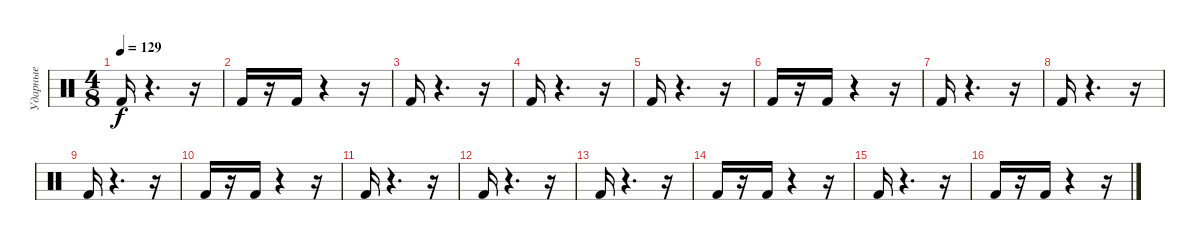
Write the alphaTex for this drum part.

\track ("Ударные" "Ударные") {instrument percussion}
\staff {score}
\articulation defaults
\ts (4 8)
\tempo 129
\clef neutral
\ks c "Kick (hit) 2".16{dy f}
r.4{d} r.16 |
"Kick (hit) 2".16 r.16 "Kick (hit) 2".16 r.4 r.16 |
"Kick (hit) 2".16 r.4{d} r.16 |
"Kick (hit) 2".16 r.4{d} r.16 |
"Kick (hit) 2".16 r.4{d} r.16 |
"Kick (hit) 2".16 r.16 "Kick (hit) 2".16 r.4 r.16 |
"Kick (hit) 2".16 r.4{d} r.16 |
"Kick (hit) 2".16 r.4{d} r.16 |
"Kick (hit) 2".16 r.4{d} r.16 |
"Kick (hit) 2".16 r.16 "Kick (hit) 2".16 r.4 r.16 |
"Kick (hit) 2".16 r.4{d} r.16 |
"Kick (hit) 2".16 r.4{d} r.16 |
"Kick (hit) 2".16 r.4{d} r.16 |
"Kick (hit) 2".16 r.16 "Kick (hit) 2".16 r.4 r.16 |
"Kick (hit) 2".16 r.4{d} r.16 |
"Kick (hit) 2".16 r.16 "Kick (hit) 2".16 r.4 r.16
